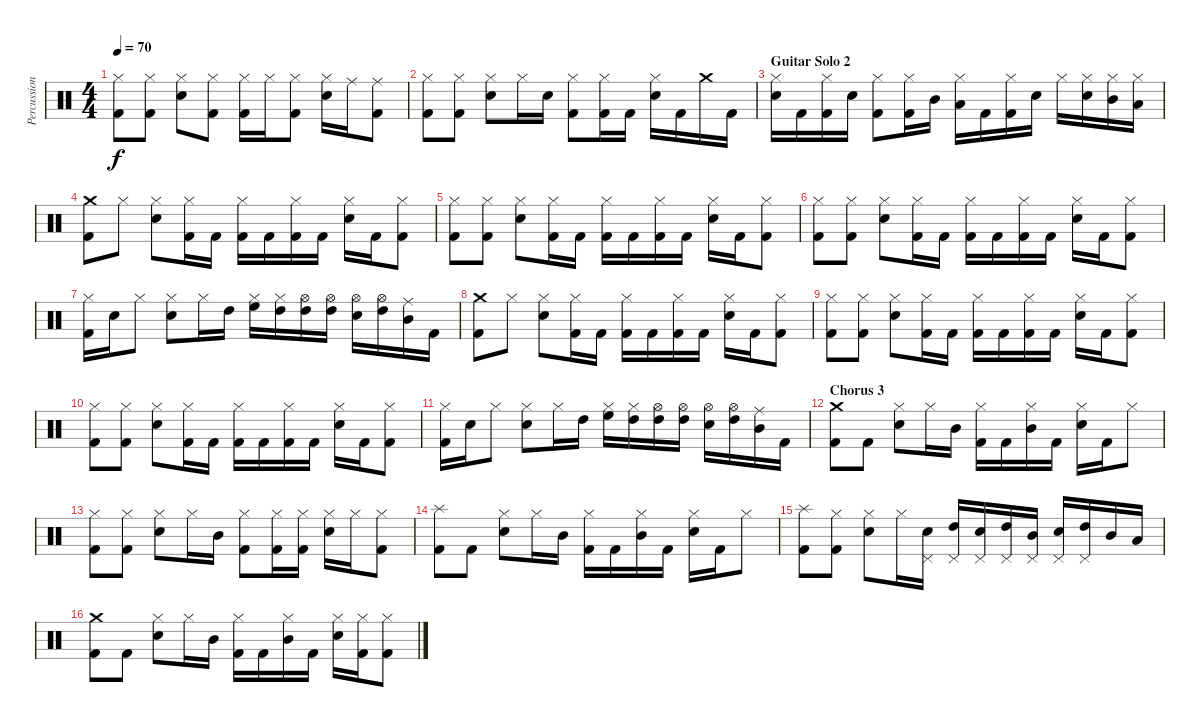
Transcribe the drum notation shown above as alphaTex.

\track ("Percussion" "Percussion") {instrument percussion}
\staff {score}
\articulation defaults
\ts (4 4)
\tempo 70
\clef neutral
\ks c
("Hi-Hat (closed)" "Kick (hit) 2").8{dy f} ("Hi-Hat (closed)" "Kick (hit) 2").8 ("Hi-Hat (closed)" "Electric Snare (hit)").8 ("Hi-Hat (closed)" "Kick (hit) 2").8 ("Hi-Hat (closed)" "Kick (hit) 2").16 "Hi-Hat (closed)".16 ("Hi-Hat (closed)" "Kick (hit) 2").8 ("Hi-Hat (closed)" "Electric Snare (hit)").16 "Ride (middle)".16 ("Ride (middle)" "Kick (hit) 2").8 |
("Hi-Hat (closed)" "Kick (hit) 2").8 ("Hi-Hat (closed)" "Kick (hit) 2").8 ("Hi-Hat (closed)" "Electric Snare (hit)").8 "Hi-Hat (closed)".16 "Electric Snare (hit)".16 ("Hi-Hat (closed)" "Kick (hit) 2").8 ("Hi-Hat (closed)" "Kick (hit) 2").16 "Kick (hit) 2".16 ("Hi-Hat (closed)" "Electric Snare (hit)").16 "Kick (hit) 2".16 "Crash medium (hit)".16 "Kick (hit) 2".16 |
\section ("" "Guitar Solo 2")
("Hi-Hat (closed)" "Electric Snare (hit)").16 "Kick (hit) 2".16 ("Hi-Hat (closed)" "Kick (hit) 2").16 "Electric Snare (hit)".16 ("Hi-Hat (closed)" "Kick (hit) 2").8 ("Hi-Hat (closed)" "Kick (hit) 2").16 "Mid Tom (hit)".16 ("Hi-Hat (closed)" "Low Tom (hit)").16 "Kick (hit) 2".16 ("Hi-Hat (closed)" "Kick (hit) 2").16 "Electric Snare (hit)".16 "Hi-Hat (closed)".16 ("Hi-Hat (closed)" "Electric Snare (hit)").16 ("Hi-Hat (closed)" "Mid Tom (hit)").16 ("Hi-Hat (closed)" "Low Tom (hit)").16 |
("Crash medium (hit)" "Kick (hit) 2").8 "Hi-Hat (closed)".8 ("Hi-Hat (closed)" "Electric Snare (hit)").8 ("Hi-Hat (closed)" "Kick (hit) 2").16 "Kick (hit) 2".16 ("Hi-Hat (closed)" "Kick (hit) 2").16 "Kick (hit) 2".16 ("Hi-Hat (closed)" "Kick (hit) 2").16 "Kick (hit) 2".16 ("Hi-Hat (closed)" "Electric Snare (hit)").16 "Kick (hit) 2".16 ("Hi-Hat (closed)" "Kick (hit) 2").8 |
("Hi-Hat (closed)" "Kick (hit) 2").8 ("Hi-Hat (closed)" "Kick (hit) 2").8 ("Hi-Hat (closed)" "Electric Snare (hit)").8 ("Hi-Hat (closed)" "Kick (hit) 2").16 "Kick (hit) 2".16 ("Hi-Hat (closed)" "Kick (hit) 2").16 "Kick (hit) 2".16 ("Hi-Hat (closed)" "Kick (hit) 2").16 "Kick (hit) 2".16 ("Hi-Hat (closed)" "Electric Snare (hit)").16 "Kick (hit) 2".16 ("Hi-Hat (closed)" "Kick (hit) 2").8 |
("Hi-Hat (closed)" "Kick (hit) 2").8 ("Hi-Hat (closed)" "Kick (hit) 2").8 ("Hi-Hat (closed)" "Electric Snare (hit)").8 ("Hi-Hat (closed)" "Kick (hit) 2").16 "Kick (hit) 2".16 ("Hi-Hat (closed)" "Kick (hit) 2").16 "Kick (hit) 2".16 ("Hi-Hat (closed)" "Kick (hit) 2").16 "Kick (hit) 2".16 ("Hi-Hat (closed)" "Electric Snare (hit)").16 "Kick (hit) 2".16 ("Hi-Hat (closed)" "Kick (hit) 2").8 |
("Hi-Hat (closed)" "Kick (hit) 2").16 "Electric Snare (hit)".16 "Hi-Hat (closed)".8 ("Hi-Hat (closed)" "Electric Snare (hit)").8 "Hi-Hat (closed)".16 "High Tom (hit)".16 ("Hi-Hat (closed)" "High Floor Tom (hit)").16 ("Hi-Hat (closed)" "High Tom (hit)").16 ("Hi-Hat (open)" "High Tom (hit)").16 ("Hi-Hat (open)" "High Tom (hit)").16 ("Hi-Hat (open)" "Electric Snare (hit)").16 ("Hi-Hat (open)" "High Tom (hit)").16 ("Ride (middle)" "Mid Tom (hit)").16 "Kick (hit) 2".16 |
("Crash medium (hit)" "Kick (hit) 2").8 "Hi-Hat (closed)".8 ("Hi-Hat (closed)" "Electric Snare (hit)").8 ("Hi-Hat (closed)" "Kick (hit) 2").16 "Kick (hit) 2".16 ("Hi-Hat (closed)" "Kick (hit) 2").16 "Kick (hit) 2".16 ("Hi-Hat (closed)" "Kick (hit) 2").16 "Kick (hit) 2".16 ("Hi-Hat (closed)" "Electric Snare (hit)").16 "Kick (hit) 2".16 ("Hi-Hat (closed)" "Kick (hit) 2").8 |
("Hi-Hat (closed)" "Kick (hit) 2").8 ("Hi-Hat (closed)" "Kick (hit) 2").8 ("Hi-Hat (closed)" "Electric Snare (hit)").8 ("Hi-Hat (closed)" "Kick (hit) 2").16 "Kick (hit) 2".16 ("Hi-Hat (closed)" "Kick (hit) 2").16 "Kick (hit) 2".16 ("Hi-Hat (closed)" "Kick (hit) 2").16 "Kick (hit) 2".16 ("Hi-Hat (closed)" "Electric Snare (hit)").16 "Kick (hit) 2".16 ("Hi-Hat (closed)" "Kick (hit) 2").8 |
("Hi-Hat (closed)" "Kick (hit) 2").8 ("Hi-Hat (closed)" "Kick (hit) 2").8 ("Hi-Hat (closed)" "Electric Snare (hit)").8 ("Hi-Hat (closed)" "Kick (hit) 2").16 "Kick (hit) 2".16 ("Hi-Hat (closed)" "Kick (hit) 2").16 "Kick (hit) 2".16 ("Hi-Hat (closed)" "Kick (hit) 2").16 "Kick (hit) 2".16 ("Hi-Hat (closed)" "Electric Snare (hit)").16 "Kick (hit) 2".16 ("Hi-Hat (closed)" "Kick (hit) 2").8 |
("Hi-Hat (closed)" "Kick (hit) 2").16 "Electric Snare (hit)".16 "Hi-Hat (closed)".8 ("Hi-Hat (closed)" "Electric Snare (hit)").8 "Hi-Hat (closed)".16 "High Tom (hit)".16 ("Hi-Hat (closed)" "High Floor Tom (hit)").16 ("Hi-Hat (closed)" "High Tom (hit)").16 ("Hi-Hat (open)" "High Tom (hit)").16 ("Hi-Hat (open)" "High Tom (hit)").16 ("Hi-Hat (open)" "Electric Snare (hit)").16 ("Hi-Hat (open)" "High Tom (hit)").16 ("Ride (middle)" "Mid Tom (hit)").16 "Kick (hit) 2".16 |
\section ("" "Chorus 3")
("Crash medium (hit)" "Kick (hit) 2").8 "Kick (hit) 2".8 ("Hi-Hat (closed)" "Electric Snare (hit)").8 "Hi-Hat (closed)".16 "Mid Tom (hit)".16 ("Hi-Hat (closed)" "Kick (hit) 2").16 "Kick (hit) 2".16 ("Hi-Hat (closed)" "Mid Tom (hit)").16 "Kick (hit) 2".16 ("Hi-Hat (closed)" "Electric Snare (hit)").16 "Kick (hit) 2".16 "Hi-Hat (closed)".8 |
("Hi-Hat (closed)" "Kick (hit) 2").8 ("Hi-Hat (closed)" "Kick (hit) 2").8 ("Hi-Hat (closed)" "Electric Snare (hit)").8 "Hi-Hat (closed)".16 "Mid Tom (hit)".16 ("Hi-Hat (closed)" "Kick (hit) 2").8 ("Hi-Hat (closed)" "Kick (hit) 2").16 ("Hi-Hat (closed)" "Kick (hit) 2").16 ("Hi-Hat (closed)" "Electric Snare (hit)").16 "Hi-Hat (closed)".16 ("Hi-Hat (closed)" "Kick (hit) 2").8 |
("Splash (hit)" "Kick (hit) 2").8 "Kick (hit) 2".8 ("Hi-Hat (closed)" "Electric Snare (hit)").8 "Hi-Hat (closed)".16 "Mid Tom (hit)".16 ("Hi-Hat (closed)" "Kick (hit) 2").16 "Kick (hit) 2".16 ("Hi-Hat (closed)" "Mid Tom (hit)").16 "Kick (hit) 2".16 ("Hi-Hat (closed)" "Electric Snare (hit)").16 "Kick (hit) 2".16 "Hi-Hat (closed)".8 |
("Splash (hit)" "Kick (hit) 2").8 ("Hi-Hat (closed)" "Kick (hit) 2").8 ("Hi-Hat (closed)" "Electric Snare (hit)").8 "Hi-Hat (closed)".16 ("Pedal Hi-Hat (hit)" "Electric Snare (hit)").16 ("Pedal Hi-Hat (hit)" "High Tom (hit)").16 ("Pedal Hi-Hat (hit)" "Electric Snare (hit)").16 ("Pedal Hi-Hat (hit)" "High Tom (hit)").16 ("Pedal Hi-Hat (hit)" "Mid Tom (hit)").16 ("Pedal Hi-Hat (hit)" "Electric Snare (hit)").16 ("Pedal Hi-Hat (hit)" "High Tom (hit)").16 "Mid Tom (hit)".16 "Low Tom (hit)".16 |
("Crash medium (hit)" "Kick (hit) 2").8 "Kick (hit) 2".8 ("Hi-Hat (closed)" "Electric Snare (hit)").8 "Hi-Hat (closed)".16 "Mid Tom (hit)".16 ("Hi-Hat (closed)" "Kick (hit) 2").16 "Kick (hit) 2".16 ("Hi-Hat (closed)" "Mid Tom (hit)").16 "Kick (hit) 2".16 ("Hi-Hat (closed)" "Electric Snare (hit)").16 ("Hi-Hat (closed)" "Kick (hit) 2").16 ("Hi-Hat (closed)" "Kick (hit) 2").8
